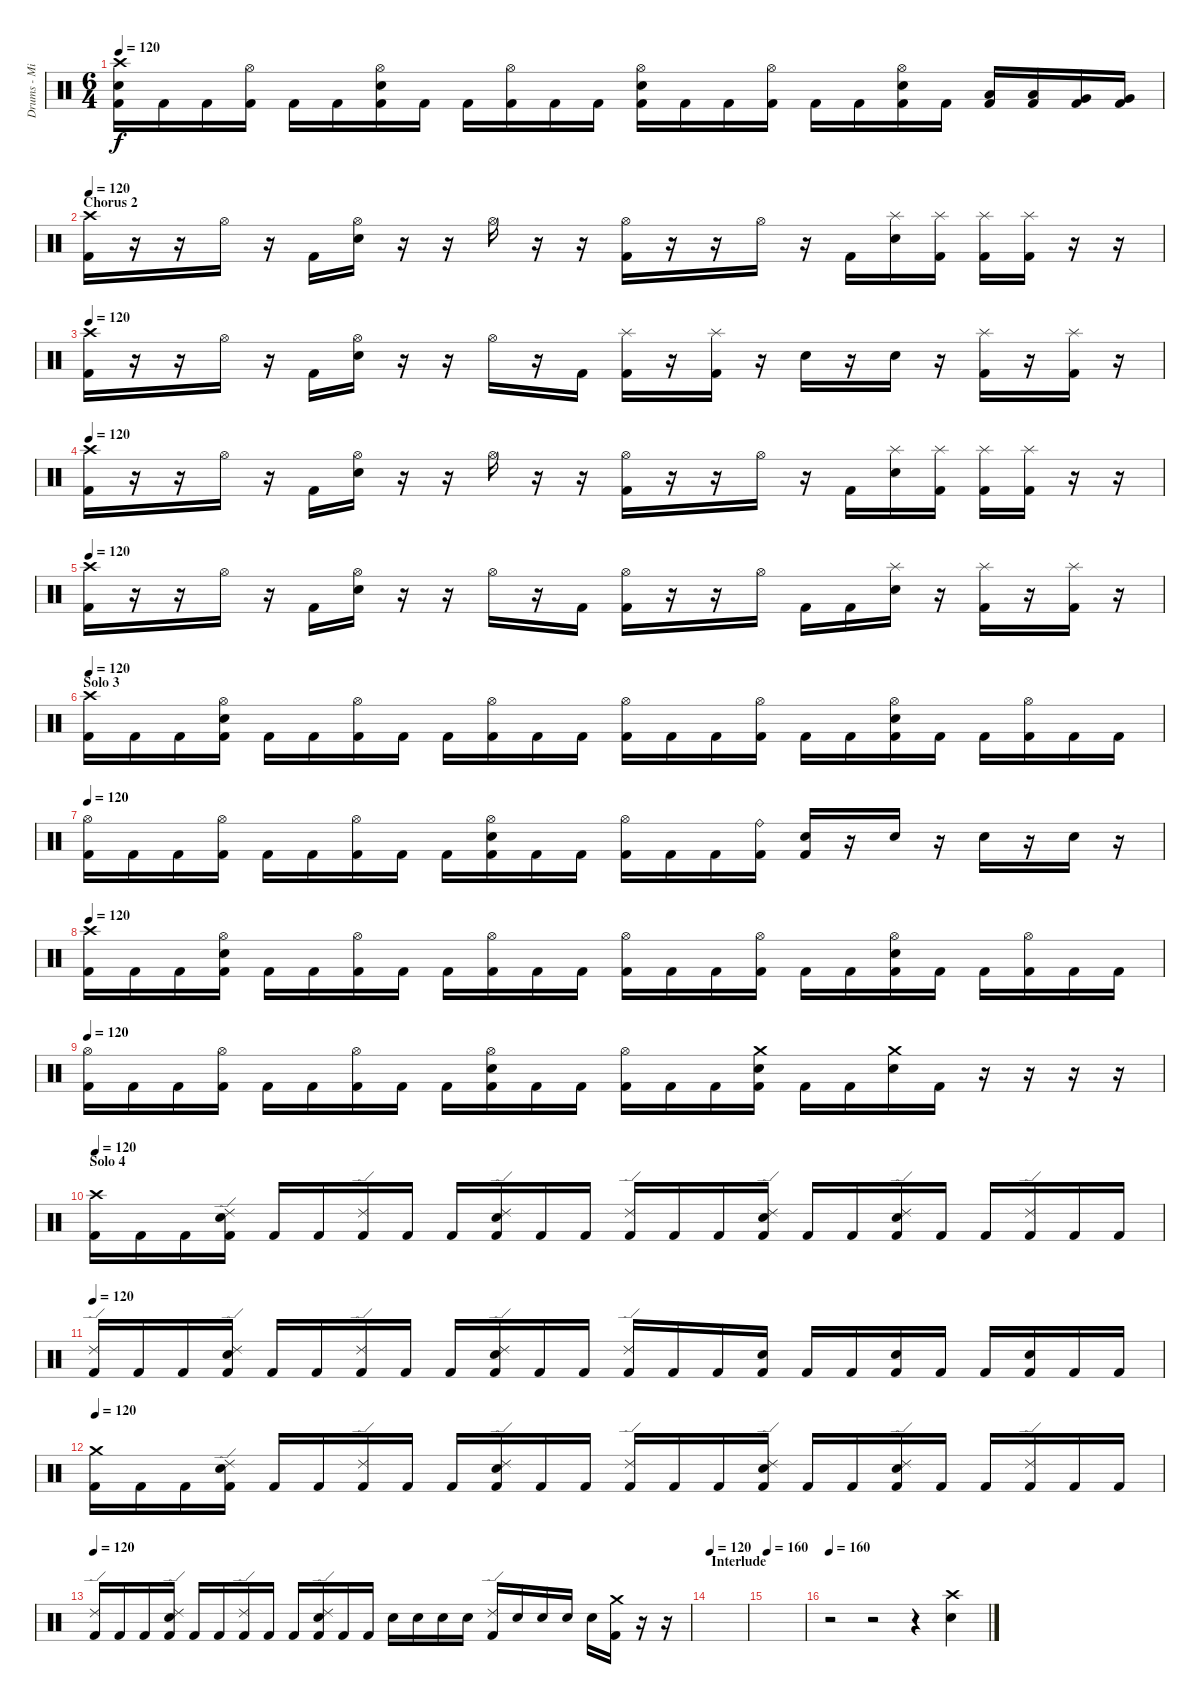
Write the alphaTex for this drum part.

\track ("Drums - Mikkey Dee" "Drums - Mi") {instrument percussion}
\staff {score}
\articulation defaults
\ts (6 4)
\tempo 120
\clef neutral
\ks c
("Crash high (hit)" "Electric Snare (hit)" "Kick (hit) 2").16{dy f} "Kick (hit) 2".16 "Kick (hit) 2".16 ("Hi-Hat (open)" "Kick (hit) 2").16 "Kick (hit) 2".16 "Kick (hit) 2".16 ("Hi-Hat (open)" "Electric Snare (hit)" "Kick (hit) 2").16 "Kick (hit) 2".16 "Kick (hit) 2".16 ("Hi-Hat (open)" "Kick (hit) 2").16 "Kick (hit) 2".16 "Kick (hit) 2".16 ("Hi-Hat (open)" "Electric Snare (hit)" "Kick (hit) 2").16 "Kick (hit) 2".16 "Kick (hit) 2".16 ("Hi-Hat (open)" "Kick (hit) 2").16 "Kick (hit) 2".16 "Kick (hit) 2".16 ("Hi-Hat (open)" "Electric Snare (hit)" "Kick (hit) 2").16 "Kick (hit) 2".16 ("Low Tom (hit)" "Kick (hit) 2").16 ("Low Tom (hit)" "Kick (hit) 2").16 ("Very Low Tom (hit)" "Kick (hit) 2").16 ("Very Low Tom (hit)" "Kick (hit) 2").16 |
\section ("" "Chorus 2")
\tempo 120
("Crash high (hit)" "Kick (hit) 2").16 r.16 r.16 "Hi-Hat (open)".16 r.16 "Kick (hit) 2".16 ("Hi-Hat (open)" "Electric Snare (hit)").16 r.16 r.16 "Hi-Hat (open)".16 r.16 r.16 ("Hi-Hat (open)" "Kick (hit) 2").16 r.16 r.16 "Hi-Hat (open)".16 r.16 "Kick (hit) 2".16 ("Splash (hit)" "Electric Snare (hit)").16 ("Splash (hit)" "Kick (hit) 2").16 ("Splash (hit)" "Kick (hit) 2").16 ("Splash (hit)" "Kick (hit) 2").16 r.16 r.16 |
\tempo 120
("Crash high (hit)" "Kick (hit) 2").16 r.16 r.16 "Hi-Hat (open)".16 r.16 "Kick (hit) 2".16 ("Hi-Hat (open)" "Electric Snare (hit)").16 r.16 r.16 "Hi-Hat (open)".16 r.16 "Kick (hit) 2".16 ("Splash (hit)" "Kick (hit) 2").16 r.16 ("Splash (hit)" "Kick (hit) 2").16 r.16 "Electric Snare (hit)".16 r.16 "Electric Snare (hit)".16 r.16 ("Splash (hit)" "Kick (hit) 2").16 r.16 ("Splash (hit)" "Kick (hit) 2").16 r.16 |
\tempo 120
("Crash high (hit)" "Kick (hit) 2").16 r.16 r.16 "Hi-Hat (open)".16 r.16 "Kick (hit) 2".16 ("Hi-Hat (open)" "Electric Snare (hit)").16 r.16 r.16 "Hi-Hat (open)".16 r.16 r.16 ("Hi-Hat (open)" "Kick (hit) 2").16 r.16 r.16 "Hi-Hat (open)".16 r.16 "Kick (hit) 2".16 ("Splash (hit)" "Electric Snare (hit)").16 ("Splash (hit)" "Kick (hit) 2").16 ("Splash (hit)" "Kick (hit) 2").16 ("Splash (hit)" "Kick (hit) 2").16 r.16 r.16 |
\tempo 120
("Crash high (hit)" "Kick (hit) 2").16 r.16 r.16 "Hi-Hat (open)".16 r.16 "Kick (hit) 2".16 ("Hi-Hat (open)" "Electric Snare (hit)").16 r.16 r.16 "Hi-Hat (open)".16 r.16 "Kick (hit) 2".16 ("Hi-Hat (open)" "Kick (hit) 2").16 r.16 r.16 "Hi-Hat (open)".16 "Kick (hit) 2".16 "Kick (hit) 2".16 ("Splash (hit)" "Electric Snare (hit)").16 r.16 ("Splash (hit)" "Kick (hit) 2").16 r.16 ("Splash (hit)" "Kick (hit) 2").16 r.16 |
\section ("" "Solo 3")
\tempo 120
("Crash high (hit)" "Kick (hit) 2").16 "Kick (hit) 2".16 "Kick (hit) 2".16 ("Hi-Hat (open)" "Electric Snare (hit)" "Kick (hit) 2").16 "Kick (hit) 2".16 "Kick (hit) 2".16 ("Hi-Hat (open)" "Kick (hit) 2").16 "Kick (hit) 2".16 "Kick (hit) 2".16 ("Hi-Hat (open)" "Kick (hit) 2").16 "Kick (hit) 2".16 "Kick (hit) 2".16 ("Hi-Hat (open)" "Kick (hit) 2").16 "Kick (hit) 2".16 "Kick (hit) 2".16 ("Hi-Hat (open)" "Kick (hit) 2").16 "Kick (hit) 2".16 "Kick (hit) 2".16 ("Hi-Hat (open)" "Electric Snare (hit)" "Kick (hit) 2").16 "Kick (hit) 2".16 "Kick (hit) 2".16 ("Hi-Hat (open)" "Kick (hit) 2").16 "Kick (hit) 2".16 "Kick (hit) 2".16 |
\tempo 120
("Hi-Hat (open)" "Kick (hit) 2").16 "Kick (hit) 2".16 "Kick (hit) 2".16 ("Hi-Hat (open)" "Kick (hit) 2").16 "Kick (hit) 2".16 "Kick (hit) 2".16 ("Hi-Hat (open)" "Kick (hit) 2").16 "Kick (hit) 2".16 "Kick (hit) 2".16 ("Hi-Hat (open)" "Electric Snare (hit)" "Kick (hit) 2").16 "Kick (hit) 2".16 "Kick (hit) 2".16 ("Hi-Hat (open)" "Kick (hit) 2").16 "Kick (hit) 2".16 "Kick (hit) 2".16 ("Ride (bell)" "Kick (hit) 2").16 ("Electric Snare (hit)" "Kick (hit) 2").16 r.16 "Electric Snare (hit)".16 r.16 "Electric Snare (hit)".16 r.16 "Electric Snare (hit)".16 r.16 |
\tempo 120
("Crash high (hit)" "Kick (hit) 2").16 "Kick (hit) 2".16 "Kick (hit) 2".16 ("Hi-Hat (open)" "Electric Snare (hit)" "Kick (hit) 2").16 "Kick (hit) 2".16 "Kick (hit) 2".16 ("Hi-Hat (open)" "Kick (hit) 2").16 "Kick (hit) 2".16 "Kick (hit) 2".16 ("Hi-Hat (open)" "Kick (hit) 2").16 "Kick (hit) 2".16 "Kick (hit) 2".16 ("Hi-Hat (open)" "Kick (hit) 2").16 "Kick (hit) 2".16 "Kick (hit) 2".16 ("Hi-Hat (open)" "Kick (hit) 2").16 "Kick (hit) 2".16 "Kick (hit) 2".16 ("Hi-Hat (open)" "Electric Snare (hit)" "Kick (hit) 2").16 "Kick (hit) 2".16 "Kick (hit) 2".16 ("Hi-Hat (open)" "Kick (hit) 2").16 "Kick (hit) 2".16 "Kick (hit) 2".16 |
\tempo 120
("Hi-Hat (open)" "Kick (hit) 2").16 "Kick (hit) 2".16 "Kick (hit) 2".16 ("Hi-Hat (open)" "Kick (hit) 2").16 "Kick (hit) 2".16 "Kick (hit) 2".16 ("Hi-Hat (open)" "Kick (hit) 2").16 "Kick (hit) 2".16 "Kick (hit) 2".16 ("Hi-Hat (open)" "Electric Snare (hit)" "Kick (hit) 2").16 "Kick (hit) 2".16 "Kick (hit) 2".16 ("Hi-Hat (open)" "Kick (hit) 2").16 "Kick (hit) 2".16 "Kick (hit) 2".16 ("Crash medium (hit)" "Electric Snare (hit)" "Kick (hit) 2").16 "Kick (hit) 2".16 "Kick (hit) 2".16 ("Crash medium (hit)" "Electric Snare (hit)").16 "Kick (hit) 2".16 r.16 r.16 r.16 r.16 |
\section ("" "Solo 4")
\tempo 120
("Crash high (hit)" "Kick (hit) 2").16 "Kick (hit) 2".16 "Kick (hit) 2".16 ("Ride (edge) 2" "Electric Snare (hit)" "Kick (hit) 2").16 "Kick (hit) 2".16 "Kick (hit) 2".16 ("Ride (edge) 2" "Kick (hit) 2").16 "Kick (hit) 2".16 "Kick (hit) 2".16 ("Ride (edge) 2" "Electric Snare (hit)" "Kick (hit) 2").16 "Kick (hit) 2".16 "Kick (hit) 2".16 ("Ride (edge) 2" "Kick (hit) 2").16 "Kick (hit) 2".16 "Kick (hit) 2".16 ("Ride (edge) 2" "Electric Snare (hit)" "Kick (hit) 2").16 "Kick (hit) 2".16 "Kick (hit) 2".16 ("Ride (edge) 2" "Electric Snare (hit)" "Kick (hit) 2").16 "Kick (hit) 2".16 "Kick (hit) 2".16 ("Ride (edge) 2" "Kick (hit) 2").16 "Kick (hit) 2".16 "Kick (hit) 2".16 |
\tempo 120
("Ride (edge) 2" "Kick (hit) 2").16 "Kick (hit) 2".16 "Kick (hit) 2".16 ("Ride (edge) 2" "Electric Snare (hit)" "Kick (hit) 2").16 "Kick (hit) 2".16 "Kick (hit) 2".16 ("Ride (edge) 2" "Kick (hit) 2").16 "Kick (hit) 2".16 "Kick (hit) 2".16 ("Ride (edge) 2" "Electric Snare (hit)" "Kick (hit) 2").16 "Kick (hit) 2".16 "Kick (hit) 2".16 ("Ride (edge) 2" "Kick (hit) 2").16 "Kick (hit) 2".16 "Kick (hit) 2".16 ("Electric Snare (hit)" "Kick (hit) 2").16 "Kick (hit) 2".16 "Kick (hit) 2".16 ("Electric Snare (hit)" "Kick (hit) 2").16 "Kick (hit) 2".16 "Kick (hit) 2".16 ("Electric Snare (hit)" "Kick (hit) 2").16 "Kick (hit) 2".16 "Kick (hit) 2".16 |
\tempo 120
("Crash medium (hit)" "Kick (hit) 2").16 "Kick (hit) 2".16 "Kick (hit) 2".16 ("Ride (edge) 2" "Electric Snare (hit)" "Kick (hit) 2").16 "Kick (hit) 2".16 "Kick (hit) 2".16 ("Ride (edge) 2" "Kick (hit) 2").16 "Kick (hit) 2".16 "Kick (hit) 2".16 ("Ride (edge) 2" "Electric Snare (hit)" "Kick (hit) 2").16 "Kick (hit) 2".16 "Kick (hit) 2".16 ("Ride (edge) 2" "Kick (hit) 2").16 "Kick (hit) 2".16 "Kick (hit) 2".16 ("Ride (edge) 2" "Electric Snare (hit)" "Kick (hit) 2").16 "Kick (hit) 2".16 "Kick (hit) 2".16 ("Ride (edge) 2" "Electric Snare (hit)" "Kick (hit) 2").16 "Kick (hit) 2".16 "Kick (hit) 2".16 ("Ride (edge) 2" "Kick (hit) 2").16 "Kick (hit) 2".16 "Kick (hit) 2".16 |
\tempo 120
("Ride (edge) 2" "Kick (hit) 2").16 "Kick (hit) 2".16 "Kick (hit) 2".16 ("Ride (edge) 2" "Electric Snare (hit)" "Kick (hit) 2").16 "Kick (hit) 2".16 "Kick (hit) 2".16 ("Ride (edge) 2" "Kick (hit) 2").16 "Kick (hit) 2".16 "Kick (hit) 2".16 ("Ride (edge) 2" "Electric Snare (hit)" "Kick (hit) 2").16 "Kick (hit) 2".16 "Kick (hit) 2".16 "Electric Snare (hit)".16 "Electric Snare (hit)".16 "Electric Snare (hit)".16 "Electric Snare (hit)".16 ("Ride (edge) 2" "Kick (hit) 2").16 "Electric Snare (hit)".16 "Electric Snare (hit)".16 "Electric Snare (hit)".16 "Electric Snare (hit)".16 ("Crash medium (hit)" "Kick (hit) 2").16 r.16 r.16 |
\section ("" "Interlude")
\tempo 120
|
\tempo 160
|
\tempo 160
r.2 r.2 r.4 ("Crash high (hit)" "Electric Snare (hit)").4
